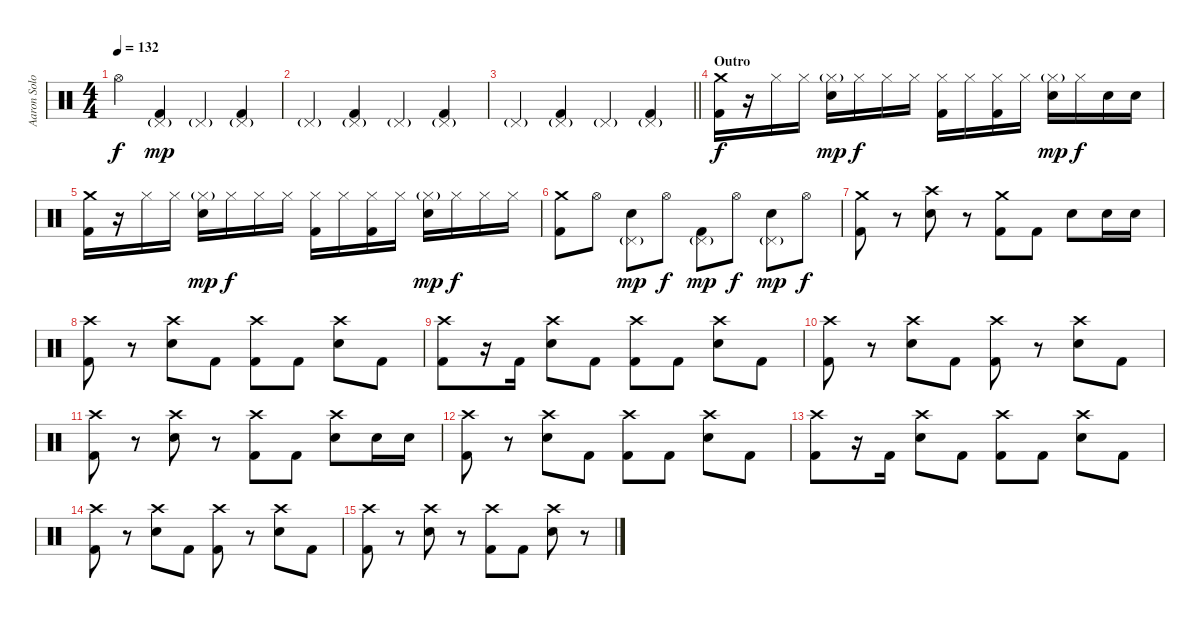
\track ("Aaron Solowoniuk" "Aaron Solo") {instrument percussion}
\staff {score}
\articulation defaults
\ts (4 4)
\tempo 132
\clef neutral
\ks c "Hi-Hat (open)".4{dy f}
("Pedal Hi-Hat (hit)"{g} "Kick (hit) 2").4{dy mp} "Pedal Hi-Hat (hit)"{g}.4 ("Pedal Hi-Hat (hit)"{g} "Kick (hit) 2").4 |
"Pedal Hi-Hat (hit)"{g}.4 ("Pedal Hi-Hat (hit)"{g} "Kick (hit) 2").4 "Pedal Hi-Hat (hit)"{g}.4 ("Pedal Hi-Hat (hit)"{g} "Kick (hit) 2").4 |
\barLineRight lightlight "Pedal Hi-Hat (hit)"{g}.4
("Pedal Hi-Hat (hit)"{g} "Kick (hit) 2").4 "Pedal Hi-Hat (hit)"{g}.4 ("Pedal Hi-Hat (hit)"{g} "Kick (hit) 2").4 |
\section ("" "Outro")
("Crash medium (hit)" "Kick (hit) 2").16{dy f} r.16 "Hi-Hat (closed)".16 "Hi-Hat (closed)".16 ("Hi-Hat (closed)"{g} "Electric Snare (hit)").16{dy mp} "Hi-Hat (closed)".16{dy f} "Hi-Hat (closed)".16 "Hi-Hat (closed)".16 ("Hi-Hat (closed)" "Kick (hit) 2").16 "Hi-Hat (closed)".16 ("Hi-Hat (closed)" "Kick (hit) 2").16 "Hi-Hat (closed)".16 ("Hi-Hat (closed)"{g} "Electric Snare (hit)").16{dy mp} "Hi-Hat (closed)".16{dy f} "Electric Snare (hit)".16 "Electric Snare (hit)".16 |
("Crash medium (hit)" "Kick (hit) 2").16 r.16 "Hi-Hat (closed)".16 "Hi-Hat (closed)".16 ("Hi-Hat (closed)"{g} "Electric Snare (hit)").16{dy mp} "Hi-Hat (closed)".16{dy f} "Hi-Hat (closed)".16 "Hi-Hat (closed)".16 ("Hi-Hat (closed)" "Kick (hit) 2").16 "Hi-Hat (closed)".16 ("Hi-Hat (closed)" "Kick (hit) 2").16 "Hi-Hat (closed)".16 ("Hi-Hat (closed)"{g} "Electric Snare (hit)").16{dy mp} "Hi-Hat (closed)".16{dy f} "Hi-Hat (closed)".16 "Hi-Hat (closed)".16 |
("Crash medium (hit)" "Kick (hit) 2").8 "Hi-Hat (open)".8 ("Pedal Hi-Hat (hit)"{g} "Electric Snare (hit)").8{dy mp} "Hi-Hat (open)".8{dy f} ("Pedal Hi-Hat (hit)"{g} "Kick (hit) 2").8{dy mp} "Hi-Hat (open)".8{dy f} ("Pedal Hi-Hat (hit)"{g} "Electric Snare (hit)").8{dy mp} "Hi-Hat (open)".8{dy f} |
("Crash medium (hit)" "Kick (hit) 2").8 r.8 ("Crash high (hit)" "Electric Snare (hit)").8 r.8 ("Crash medium (hit)" "Kick (hit) 2").8 "Kick (hit) 2".8 "Electric Snare (hit)".8 "Electric Snare (hit)".16 "Electric Snare (hit)".16 |
("Crash high (hit)" "Kick (hit) 2").8 r.8 ("Crash high (hit)" "Electric Snare (hit)").8 "Kick (hit) 2".8 ("Crash high (hit)" "Kick (hit) 2").8 "Kick (hit) 2".8 ("Crash high (hit)" "Electric Snare (hit)").8 "Kick (hit) 2".8 |
("Crash high (hit)" "Kick (hit) 2").8 r.16 "Kick (hit) 2".16 ("Crash high (hit)" "Electric Snare (hit)").8 "Kick (hit) 2".8 ("Crash high (hit)" "Kick (hit) 2").8 "Kick (hit) 2".8 ("Crash high (hit)" "Electric Snare (hit)").8 "Kick (hit) 2".8 |
("Crash high (hit)" "Kick (hit) 2").8 r.8 ("Crash high (hit)" "Electric Snare (hit)").8 "Kick (hit) 2".8 ("Crash high (hit)" "Kick (hit) 2").8 r.8 ("Crash high (hit)" "Electric Snare (hit)").8 "Kick (hit) 2".8 |
("Crash high (hit)" "Kick (hit) 2").8 r.8 ("Crash high (hit)" "Electric Snare (hit)").8 r.8 ("Crash high (hit)" "Kick (hit) 2").8 "Kick (hit) 2".8 ("Crash high (hit)" "Electric Snare (hit)").8 "Electric Snare (hit)".16 "Electric Snare (hit)".16 |
("Crash high (hit)" "Kick (hit) 2").8 r.8 ("Crash high (hit)" "Electric Snare (hit)").8 "Kick (hit) 2".8 ("Crash high (hit)" "Kick (hit) 2").8 "Kick (hit) 2".8 ("Crash high (hit)" "Electric Snare (hit)").8 "Kick (hit) 2".8 |
("Crash high (hit)" "Kick (hit) 2").8 r.16 "Kick (hit) 2".16 ("Crash high (hit)" "Electric Snare (hit)").8 "Kick (hit) 2".8 ("Crash high (hit)" "Kick (hit) 2").8 "Kick (hit) 2".8 ("Crash high (hit)" "Electric Snare (hit)").8 "Kick (hit) 2".8 |
("Crash high (hit)" "Kick (hit) 2").8 r.8 ("Crash high (hit)" "Electric Snare (hit)").8 "Kick (hit) 2".8 ("Crash high (hit)" "Kick (hit) 2").8 r.8 ("Crash high (hit)" "Electric Snare (hit)").8 "Kick (hit) 2".8 |
("Crash high (hit)" "Kick (hit) 2").8 r.8 ("Crash high (hit)" "Electric Snare (hit)").8 r.8 ("Crash high (hit)" "Kick (hit) 2").8 "Kick (hit) 2".8 ("Crash high (hit)" "Electric Snare (hit)").8 r.8
